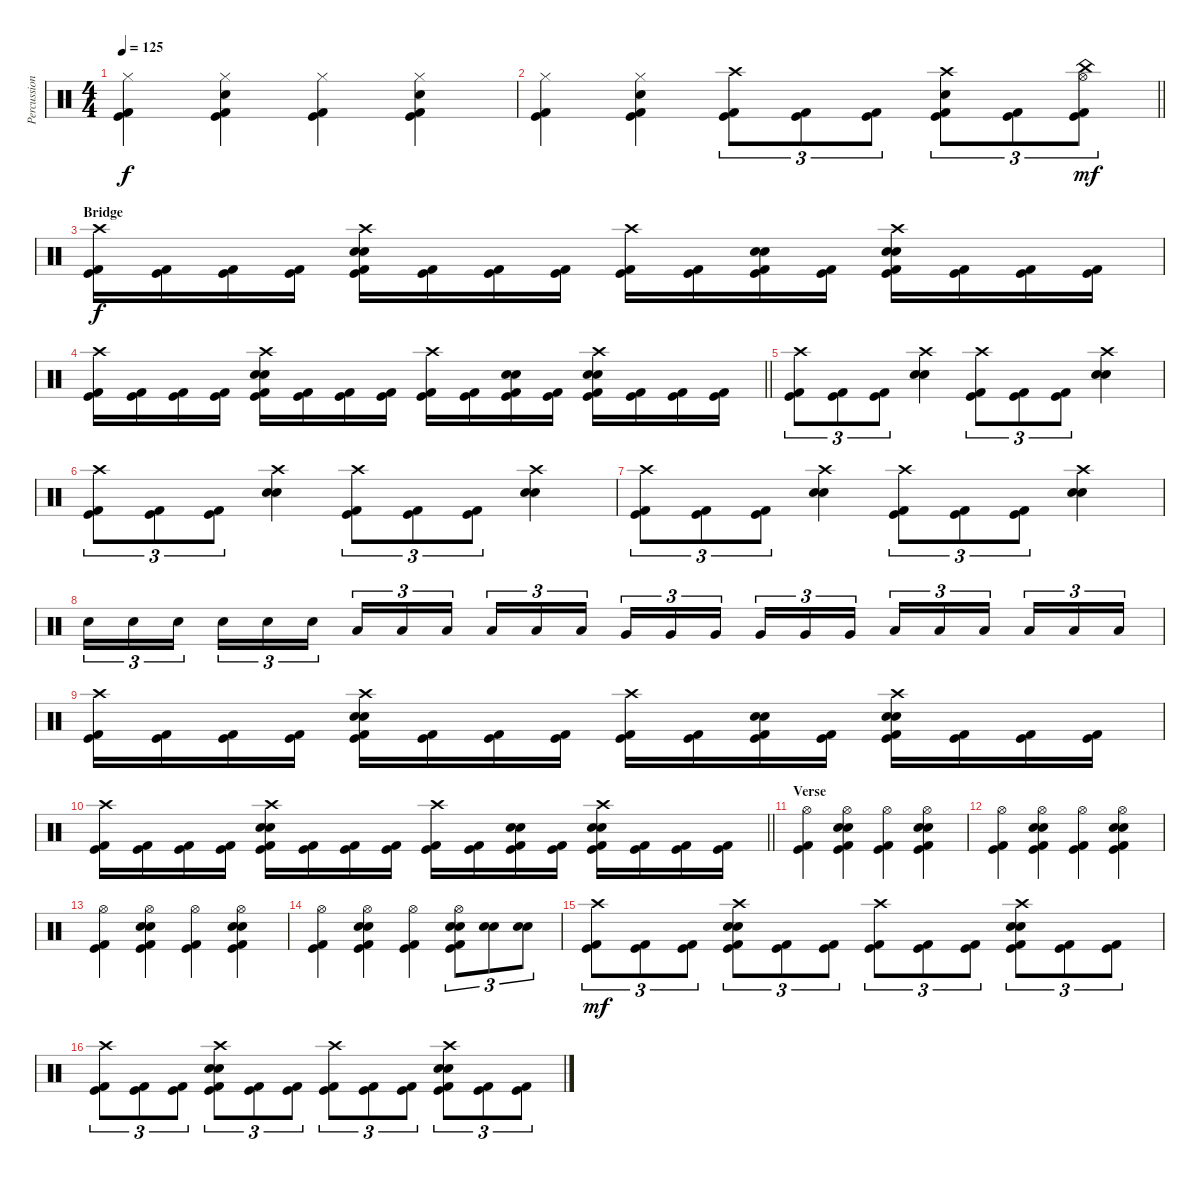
\track ("Percussion" "Percussion") {instrument percussion}
\staff {score}
\articulation defaults
\ts (4 4)
\tempo 125
\clef neutral
\ks c
("Hi-Hat (closed)" "Kick (hit) 2" "Kick (hit)").4{dy f} ("Hi-Hat (closed)" "Electric Snare (hit)" "Kick (hit) 2" "Kick (hit)").4 ("Hi-Hat (closed)" "Kick (hit) 2" "Kick (hit)").4 ("Hi-Hat (closed)" "Electric Snare (hit)" "Kick (hit) 2" "Kick (hit)").4 |
\barLineRight lightlight
("Hi-Hat (closed)" "Kick (hit) 2" "Kick (hit)").4 ("Hi-Hat (closed)" "Electric Snare (hit)" "Kick (hit) 2" "Kick (hit)").4 ("Crash high (hit)" "Kick (hit) 2" "Kick (hit)").8{tu (3 2)} ("Kick (hit) 2" "Kick (hit)").8{tu (3 2)} ("Kick (hit) 2" "Kick (hit)").8{tu (3 2)} ("Crash high (hit)" "Electric Snare (hit)" "Kick (hit) 2" "Kick (hit)").8{tu (3 2)} ("Kick (hit) 2" "Kick (hit)").8{tu (3 2)} ("China (hit)" "Hi-Hat (open)" "Kick (hit) 2" "Kick (hit)").8{tu (3 2) dy mf} |
\section ("" "Bridge")
("Crash high (hit)" "Kick (hit)" "Kick (hit) 2").16{dy f} ("Kick (hit)" "Kick (hit) 2").16 ("Kick (hit)" "Kick (hit) 2").16 ("Kick (hit)" "Kick (hit) 2").16 ("Crash high (hit)" "Electric Snare (hit)" "Electric Snare (hit)" "Kick (hit)" "Kick (hit) 2").16 ("Kick (hit)" "Kick (hit) 2").16 ("Kick (hit)" "Kick (hit) 2").16 ("Kick (hit)" "Kick (hit) 2").16 ("Crash high (hit)" "Kick (hit)" "Kick (hit) 2").16 ("Kick (hit)" "Kick (hit) 2").16 ("Electric Snare (hit)" "Electric Snare (hit)" "Kick (hit)" "Kick (hit) 2").16 ("Kick (hit)" "Kick (hit) 2").16 ("Crash high (hit)" "Electric Snare (hit)" "Electric Snare (hit)" "Kick (hit)" "Kick (hit) 2").16 ("Kick (hit)" "Kick (hit) 2").16 ("Kick (hit)" "Kick (hit) 2").16 ("Kick (hit)" "Kick (hit) 2").16 |
\barLineRight lightlight
("Crash high (hit)" "Kick (hit)" "Kick (hit) 2").16 ("Kick (hit)" "Kick (hit) 2").16 ("Kick (hit)" "Kick (hit) 2").16 ("Kick (hit)" "Kick (hit) 2").16 ("Crash high (hit)" "Electric Snare (hit)" "Electric Snare (hit)" "Kick (hit)" "Kick (hit) 2").16 ("Kick (hit)" "Kick (hit) 2").16 ("Kick (hit)" "Kick (hit) 2").16 ("Kick (hit)" "Kick (hit) 2").16 ("Crash high (hit)" "Kick (hit)" "Kick (hit) 2").16 ("Kick (hit)" "Kick (hit) 2").16 ("Electric Snare (hit)" "Electric Snare (hit)" "Kick (hit)" "Kick (hit) 2").16 ("Kick (hit)" "Kick (hit) 2").16 ("Crash high (hit)" "Electric Snare (hit)" "Electric Snare (hit)" "Kick (hit)" "Kick (hit) 2").16 ("Kick (hit)" "Kick (hit) 2").16 ("Kick (hit)" "Kick (hit) 2").16 ("Kick (hit)" "Kick (hit) 2").16 |
("Crash high (hit)" "Kick (hit) 2" "Kick (hit)").8{tu (3 2)} ("Kick (hit) 2" "Kick (hit)").8{tu (3 2)} ("Kick (hit) 2" "Kick (hit)").8{tu (3 2)} ("Crash high (hit)" "Electric Snare (hit)" "Electric Snare (hit)").4 ("Crash high (hit)" "Kick (hit) 2" "Kick (hit)").8{tu (3 2)} ("Kick (hit) 2" "Kick (hit)").8{tu (3 2)} ("Kick (hit) 2" "Kick (hit)").8{tu (3 2)} ("Crash high (hit)" "Electric Snare (hit)" "Electric Snare (hit)").4 |
("Crash high (hit)" "Kick (hit) 2" "Kick (hit)").8{tu (3 2)} ("Kick (hit) 2" "Kick (hit)").8{tu (3 2)} ("Kick (hit) 2" "Kick (hit)").8{tu (3 2)} ("Crash high (hit)" "Electric Snare (hit)" "Electric Snare (hit)").4 ("Crash high (hit)" "Kick (hit) 2" "Kick (hit)").8{tu (3 2)} ("Kick (hit) 2" "Kick (hit)").8{tu (3 2)} ("Kick (hit) 2" "Kick (hit)").8{tu (3 2)} ("Crash high (hit)" "Electric Snare (hit)" "Electric Snare (hit)").4 |
("Crash high (hit)" "Kick (hit) 2" "Kick (hit)").8{tu (3 2)} ("Kick (hit) 2" "Kick (hit)").8{tu (3 2)} ("Kick (hit) 2" "Kick (hit)").8{tu (3 2)} ("Crash high (hit)" "Electric Snare (hit)" "Electric Snare (hit)").4 ("Crash high (hit)" "Kick (hit) 2" "Kick (hit)").8{tu (3 2)} ("Kick (hit) 2" "Kick (hit)").8{tu (3 2)} ("Kick (hit) 2" "Kick (hit)").8{tu (3 2)} ("Crash high (hit)" "Electric Snare (hit)" "Electric Snare (hit)").4 |
"Electric Snare (hit)".16{tu (3 2)} "Electric Snare (hit)".16{tu (3 2)} "Electric Snare (hit)".16{tu (3 2) beam splitsecondary} "Electric Snare (hit)".16{tu (3 2)} "Electric Snare (hit)".16{tu (3 2)} "Electric Snare (hit)".16{tu (3 2)} "Low Tom (hit)".16{tu (3 2)} "Low Tom (hit)".16{tu (3 2)} "Low Tom (hit)".16{tu (3 2) beam splitsecondary} "Low Tom (hit)".16{tu (3 2)} "Low Tom (hit)".16{tu (3 2)} "Low Tom (hit)".16{tu (3 2)} "Very Low Tom (hit)".16{tu (3 2)} "Very Low Tom (hit)".16{tu (3 2)} "Very Low Tom (hit)".16{tu (3 2) beam splitsecondary} "Very Low Tom (hit)".16{tu (3 2)} "Very Low Tom (hit)".16{tu (3 2)} "Very Low Tom (hit)".16{tu (3 2)} "Low Floor Tom (hit)".16{tu (3 2)} "Low Floor Tom (hit)".16{tu (3 2)} "Low Floor Tom (hit)".16{tu (3 2) beam splitsecondary} "Low Floor Tom (hit)".16{tu (3 2)} "Low Floor Tom (hit)".16{tu (3 2)} "Low Floor Tom (hit)".16{tu (3 2)} |
("Crash high (hit)" "Kick (hit)" "Kick (hit) 2").16 ("Kick (hit)" "Kick (hit) 2").16 ("Kick (hit)" "Kick (hit) 2").16 ("Kick (hit)" "Kick (hit) 2").16 ("Crash high (hit)" "Electric Snare (hit)" "Electric Snare (hit)" "Kick (hit)" "Kick (hit) 2").16 ("Kick (hit)" "Kick (hit) 2").16 ("Kick (hit)" "Kick (hit) 2").16 ("Kick (hit)" "Kick (hit) 2").16 ("Crash high (hit)" "Kick (hit)" "Kick (hit) 2").16 ("Kick (hit)" "Kick (hit) 2").16 ("Electric Snare (hit)" "Electric Snare (hit)" "Kick (hit)" "Kick (hit) 2").16 ("Kick (hit)" "Kick (hit) 2").16 ("Crash high (hit)" "Electric Snare (hit)" "Electric Snare (hit)" "Kick (hit)" "Kick (hit) 2").16 ("Kick (hit)" "Kick (hit) 2").16 ("Kick (hit)" "Kick (hit) 2").16 ("Kick (hit)" "Kick (hit) 2").16 |
\barLineRight lightlight
("Crash high (hit)" "Kick (hit)" "Kick (hit) 2").16 ("Kick (hit)" "Kick (hit) 2").16 ("Kick (hit)" "Kick (hit) 2").16 ("Kick (hit)" "Kick (hit) 2").16 ("Crash high (hit)" "Electric Snare (hit)" "Electric Snare (hit)" "Kick (hit)" "Kick (hit) 2").16 ("Kick (hit)" "Kick (hit) 2").16 ("Kick (hit)" "Kick (hit) 2").16 ("Kick (hit)" "Kick (hit) 2").16 ("Crash high (hit)" "Kick (hit)" "Kick (hit) 2").16 ("Kick (hit)" "Kick (hit) 2").16 ("Electric Snare (hit)" "Electric Snare (hit)" "Kick (hit)" "Kick (hit) 2").16 ("Kick (hit)" "Kick (hit) 2").16 ("Crash high (hit)" "Electric Snare (hit)" "Electric Snare (hit)" "Kick (hit)" "Kick (hit) 2").16 ("Kick (hit)" "Kick (hit) 2").16 ("Kick (hit)" "Kick (hit) 2").16 ("Kick (hit)" "Kick (hit) 2").16 |
\section ("" "Verse")
("Hi-Hat (open)" "Kick (hit) 2" "Kick (hit)").4 ("Electric Snare (hit)" "Hi-Hat (open)" "Electric Snare (hit)" "Kick (hit) 2" "Kick (hit)").4 ("Hi-Hat (open)" "Kick (hit) 2" "Kick (hit)").4 ("Electric Snare (hit)" "Hi-Hat (open)" "Electric Snare (hit)" "Kick (hit) 2" "Kick (hit)").4 |
("Hi-Hat (open)" "Kick (hit) 2" "Kick (hit)").4 ("Electric Snare (hit)" "Hi-Hat (open)" "Electric Snare (hit)" "Kick (hit) 2" "Kick (hit)").4 ("Hi-Hat (open)" "Kick (hit) 2" "Kick (hit)").4 ("Electric Snare (hit)" "Hi-Hat (open)" "Electric Snare (hit)" "Kick (hit) 2" "Kick (hit)").4 |
("Hi-Hat (open)" "Kick (hit) 2" "Kick (hit)").4 ("Electric Snare (hit)" "Hi-Hat (open)" "Electric Snare (hit)" "Kick (hit) 2" "Kick (hit)").4 ("Hi-Hat (open)" "Kick (hit) 2" "Kick (hit)").4 ("Electric Snare (hit)" "Hi-Hat (open)" "Electric Snare (hit)" "Kick (hit) 2" "Kick (hit)").4 |
("Hi-Hat (open)" "Kick (hit) 2" "Kick (hit)").4 ("Electric Snare (hit)" "Hi-Hat (open)" "Electric Snare (hit)" "Kick (hit) 2" "Kick (hit)").4 ("Hi-Hat (open)" "Kick (hit) 2" "Kick (hit)").4 ("Electric Snare (hit)" "Hi-Hat (open)" "Electric Snare (hit)" "Kick (hit) 2" "Kick (hit)").8{tu (3 2)} ("Electric Snare (hit)" "Electric Snare (hit)").8{tu (3 2)} ("Electric Snare (hit)" "Electric Snare (hit)").8{tu (3 2)} |
("Crash high (hit)" "Kick (hit) 2" "Kick (hit)").8{tu (3 2) dy mf} ("Kick (hit) 2" "Kick (hit)").8{tu (3 2)} ("Kick (hit) 2" "Kick (hit)").8{tu (3 2)} ("Electric Snare (hit)" "Crash high (hit)" "Electric Snare (hit)" "Kick (hit) 2" "Kick (hit)").8{tu (3 2)} ("Kick (hit) 2" "Kick (hit)").8{tu (3 2)} ("Kick (hit) 2" "Kick (hit)").8{tu (3 2)} ("Crash high (hit)" "Kick (hit) 2" "Kick (hit)").8{tu (3 2)} ("Kick (hit) 2" "Kick (hit)").8{tu (3 2)} ("Kick (hit) 2" "Kick (hit)").8{tu (3 2)} ("Electric Snare (hit)" "Crash high (hit)" "Electric Snare (hit)" "Kick (hit) 2" "Kick (hit)").8{tu (3 2)} ("Kick (hit) 2" "Kick (hit)").8{tu (3 2)} ("Kick (hit) 2" "Kick (hit)").8{tu (3 2)} |
("Crash high (hit)" "Kick (hit) 2" "Kick (hit)").8{tu (3 2)} ("Kick (hit) 2" "Kick (hit)").8{tu (3 2)} ("Kick (hit) 2" "Kick (hit)").8{tu (3 2)} ("Electric Snare (hit)" "Crash high (hit)" "Electric Snare (hit)" "Kick (hit) 2" "Kick (hit)").8{tu (3 2)} ("Kick (hit) 2" "Kick (hit)").8{tu (3 2)} ("Kick (hit) 2" "Kick (hit)").8{tu (3 2)} ("Crash high (hit)" "Kick (hit) 2" "Kick (hit)").8{tu (3 2)} ("Kick (hit) 2" "Kick (hit)").8{tu (3 2)} ("Kick (hit) 2" "Kick (hit)").8{tu (3 2)} ("Electric Snare (hit)" "Crash high (hit)" "Electric Snare (hit)" "Kick (hit) 2" "Kick (hit)").8{tu (3 2)} ("Kick (hit) 2" "Kick (hit)").8{tu (3 2)} ("Kick (hit) 2" "Kick (hit)").8{tu (3 2)}
